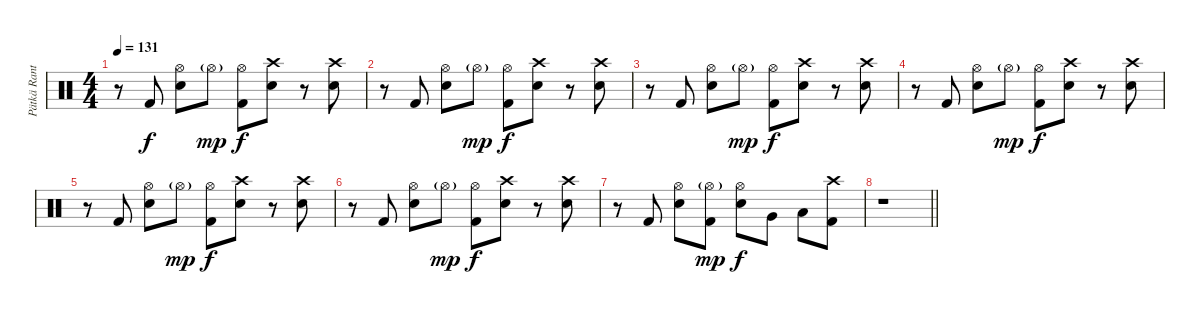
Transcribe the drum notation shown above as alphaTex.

\track ("Pätkä Rantala (Drums)" "Pätkä Rant") {instrument percussion}
\staff {score}
\articulation defaults
\ts (4 4)
\tempo 131
\clef neutral
\ks c
r.8{dy f} "Kick (hit) 2".8 ("Hi-Hat (open)" "Snare (hit) 2").8 "Hi-Hat (open)"{g}.8{dy mp} ("Hi-Hat (open)" "Kick (hit) 2").8{dy f} ("Crash high (hit)" "Snare (hit) 2").8 r.8 ("Crash high (hit)" "Snare (hit) 2").8 |
r.8 "Kick (hit) 2".8 ("Hi-Hat (open)" "Snare (hit) 2").8 "Hi-Hat (open)"{g}.8{dy mp} ("Hi-Hat (open)" "Kick (hit) 2").8{dy f} ("Crash high (hit)" "Snare (hit) 2").8 r.8 ("Crash high (hit)" "Snare (hit) 2").8 |
r.8 "Kick (hit) 2".8 ("Hi-Hat (open)" "Snare (hit) 2").8 "Hi-Hat (open)"{g}.8{dy mp} ("Hi-Hat (open)" "Kick (hit) 2").8{dy f} ("Crash high (hit)" "Snare (hit) 2").8 r.8 ("Crash high (hit)" "Snare (hit) 2").8 |
r.8 "Kick (hit) 2".8 ("Hi-Hat (open)" "Snare (hit) 2").8 "Hi-Hat (open)"{g}.8{dy mp} ("Hi-Hat (open)" "Kick (hit) 2").8{dy f} ("Crash high (hit)" "Snare (hit) 2").8 r.8 ("Crash high (hit)" "Snare (hit) 2").8 |
r.8 "Kick (hit) 2".8 ("Hi-Hat (open)" "Snare (hit) 2").8 "Hi-Hat (open)"{g}.8{dy mp} ("Hi-Hat (open)" "Kick (hit) 2").8{dy f} ("Crash high (hit)" "Snare (hit) 2").8 r.8 ("Crash high (hit)" "Snare (hit) 2").8 |
r.8 "Kick (hit) 2".8 ("Hi-Hat (open)" "Snare (hit) 2").8 "Hi-Hat (open)"{g}.8{dy mp} ("Hi-Hat (open)" "Kick (hit) 2").8{dy f} ("Crash high (hit)" "Snare (hit) 2").8 r.8 ("Crash high (hit)" "Snare (hit) 2").8 |
r.8 "Kick (hit) 2".8 ("Hi-Hat (open)" "Snare (hit) 2").8 ("Hi-Hat (open)"{g} "Kick (hit) 2").8{dy mp} ("Hi-Hat (open)" "Snare (hit) 2").8{dy f} "Very Low Tom (hit)".8 "Low Floor Tom (hit)".8 ("Crash high (hit)" "Kick (hit) 2").8 |
\barLineRight lightlight
r.1
